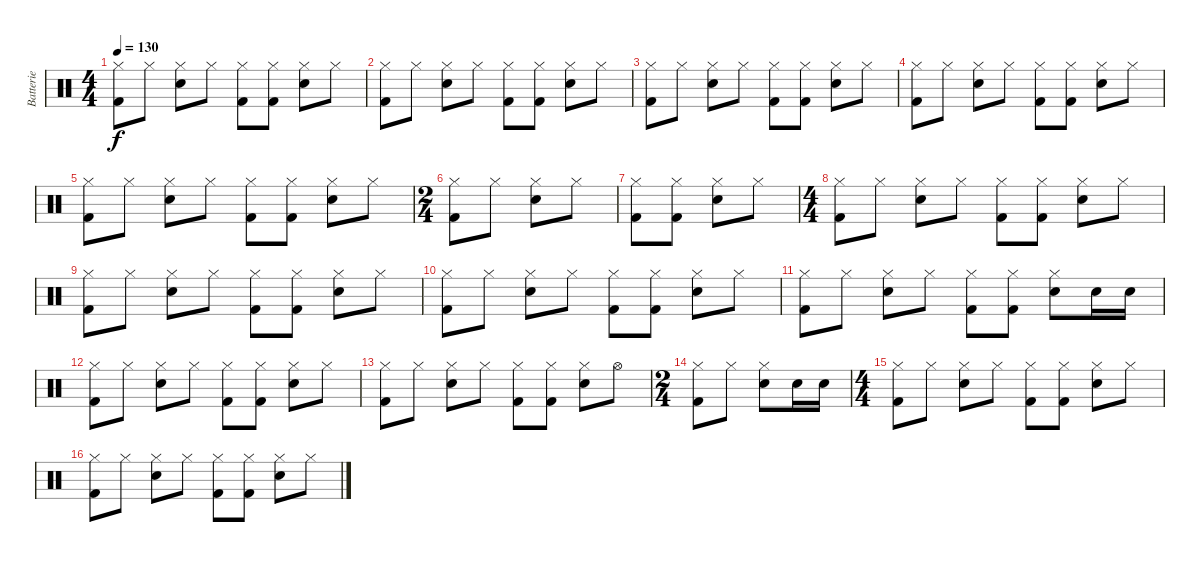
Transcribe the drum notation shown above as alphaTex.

\track ("Batterie" "Batterie") {instrument percussion}
\staff {score}
\articulation defaults
\ts (4 4)
\tempo 130
\clef neutral
\ks c
("Hi-Hat (closed)" "Kick (hit) 2").8{dy f} "Hi-Hat (closed)".8 ("Hi-Hat (closed)" "Snare (hit) 2").8 "Hi-Hat (closed)".8 ("Hi-Hat (closed)" "Kick (hit) 2").8 ("Hi-Hat (closed)" "Kick (hit) 2").8 ("Hi-Hat (closed)" "Snare (hit) 2").8 "Hi-Hat (closed)".8 |
("Hi-Hat (closed)" "Kick (hit) 2").8 "Hi-Hat (closed)".8 ("Hi-Hat (closed)" "Snare (hit) 2").8 "Hi-Hat (closed)".8 ("Hi-Hat (closed)" "Kick (hit) 2").8 ("Hi-Hat (closed)" "Kick (hit) 2").8 ("Hi-Hat (closed)" "Snare (hit) 2").8 "Hi-Hat (closed)".8 |
("Hi-Hat (closed)" "Kick (hit) 2").8 "Hi-Hat (closed)".8 ("Hi-Hat (closed)" "Snare (hit) 2").8 "Hi-Hat (closed)".8 ("Hi-Hat (closed)" "Kick (hit) 2").8 ("Hi-Hat (closed)" "Kick (hit) 2").8 ("Hi-Hat (closed)" "Snare (hit) 2").8 "Hi-Hat (closed)".8 |
("Hi-Hat (closed)" "Kick (hit) 2").8 "Hi-Hat (closed)".8 ("Hi-Hat (closed)" "Snare (hit) 2").8 "Hi-Hat (closed)".8 ("Hi-Hat (closed)" "Kick (hit) 2").8 ("Hi-Hat (closed)" "Kick (hit) 2").8 ("Hi-Hat (closed)" "Snare (hit) 2").8 "Hi-Hat (closed)".8 |
("Hi-Hat (closed)" "Kick (hit) 2").8 "Hi-Hat (closed)".8 ("Hi-Hat (closed)" "Snare (hit) 2").8 "Hi-Hat (closed)".8 ("Hi-Hat (closed)" "Kick (hit) 2").8 ("Hi-Hat (closed)" "Kick (hit) 2").8 ("Hi-Hat (closed)" "Snare (hit) 2").8 "Hi-Hat (closed)".8 |
\ts (2 4)
("Hi-Hat (closed)" "Kick (hit) 2").8 "Hi-Hat (closed)".8 ("Hi-Hat (closed)" "Snare (hit) 2").8 "Hi-Hat (closed)".8 |
("Hi-Hat (closed)" "Kick (hit) 2").8 ("Hi-Hat (closed)" "Kick (hit) 2").8 ("Hi-Hat (closed)" "Snare (hit) 2").8 "Hi-Hat (closed)".8 |
\ts (4 4)
("Hi-Hat (closed)" "Kick (hit) 2").8 "Hi-Hat (closed)".8 ("Hi-Hat (closed)" "Snare (hit) 2").8 "Hi-Hat (closed)".8 ("Hi-Hat (closed)" "Kick (hit) 2").8 ("Hi-Hat (closed)" "Kick (hit) 2").8 ("Hi-Hat (closed)" "Snare (hit) 2").8 "Hi-Hat (closed)".8 |
("Hi-Hat (closed)" "Kick (hit) 2").8 "Hi-Hat (closed)".8 ("Hi-Hat (closed)" "Snare (hit) 2").8 "Hi-Hat (closed)".8 ("Hi-Hat (closed)" "Kick (hit) 2").8 ("Hi-Hat (closed)" "Kick (hit) 2").8 ("Hi-Hat (closed)" "Snare (hit) 2").8 "Hi-Hat (closed)".8 |
("Hi-Hat (closed)" "Kick (hit) 2").8 "Hi-Hat (closed)".8 ("Hi-Hat (closed)" "Snare (hit) 2").8 "Hi-Hat (closed)".8 ("Hi-Hat (closed)" "Kick (hit) 2").8 ("Hi-Hat (closed)" "Kick (hit) 2").8 ("Hi-Hat (closed)" "Snare (hit) 2").8 "Hi-Hat (closed)".8 |
("Hi-Hat (closed)" "Kick (hit) 2").8 "Hi-Hat (closed)".8 ("Hi-Hat (closed)" "Snare (hit) 2").8 "Hi-Hat (closed)".8 ("Hi-Hat (closed)" "Kick (hit) 2").8 ("Hi-Hat (closed)" "Kick (hit) 2").8 ("Hi-Hat (closed)" "Snare (hit) 2").8 "Snare (hit) 2".16 "Snare (hit) 2".16 |
("Hi-Hat (closed)" "Kick (hit) 2").8 "Hi-Hat (closed)".8 ("Hi-Hat (closed)" "Snare (hit) 2").8 "Hi-Hat (closed)".8 ("Hi-Hat (closed)" "Kick (hit) 2").8 ("Hi-Hat (closed)" "Kick (hit) 2").8 ("Hi-Hat (closed)" "Snare (hit) 2").8 "Hi-Hat (closed)".8 |
("Hi-Hat (closed)" "Kick (hit) 2").8 "Hi-Hat (closed)".8 ("Hi-Hat (closed)" "Snare (hit) 2").8 "Hi-Hat (closed)".8 ("Hi-Hat (closed)" "Kick (hit) 2").8 ("Hi-Hat (closed)" "Kick (hit) 2").8 ("Hi-Hat (closed)" "Snare (hit) 2").8 "Hi-Hat (open)".8 |
\ts (2 4)
("Hi-Hat (closed)" "Kick (hit) 2").8 "Hi-Hat (closed)".8 ("Hi-Hat (closed)" "Snare (hit) 2").8 "Snare (hit) 2".16 "Snare (hit) 2".16 |
\ts (4 4)
("Hi-Hat (closed)" "Kick (hit) 2").8 "Hi-Hat (closed)".8 ("Hi-Hat (closed)" "Snare (hit) 2").8 "Hi-Hat (closed)".8 ("Hi-Hat (closed)" "Kick (hit) 2").8 ("Hi-Hat (closed)" "Kick (hit) 2").8 ("Hi-Hat (closed)" "Snare (hit) 2").8 "Hi-Hat (closed)".8 |
("Hi-Hat (closed)" "Kick (hit) 2").8 "Hi-Hat (closed)".8 ("Hi-Hat (closed)" "Snare (hit) 2").8 "Hi-Hat (closed)".8 ("Hi-Hat (closed)" "Kick (hit) 2").8 ("Hi-Hat (closed)" "Kick (hit) 2").8 ("Hi-Hat (closed)" "Snare (hit) 2").8 "Hi-Hat (closed)".8
